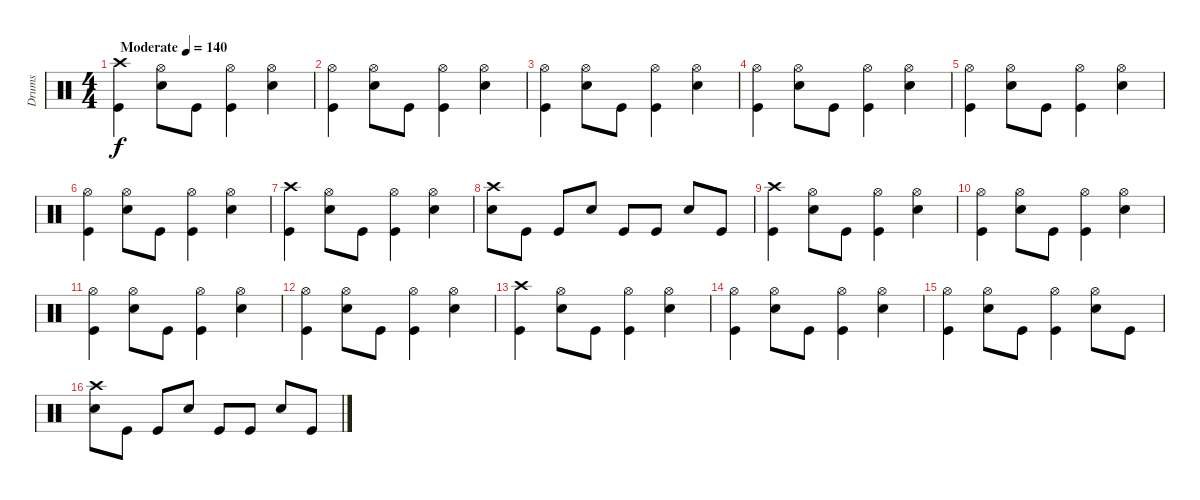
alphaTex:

\track ("Drums" "Drums") {instrument percussion}
\staff {score}
\articulation defaults
\ts (4 4)
\tempo (140 "Moderate")
\clef neutral
\ks c
("Crash high (hit)" "Kick (hit)").4{dy f} ("Hi-Hat (open)" "Snare (hit) 2").8 "Kick (hit)".8 ("Hi-Hat (open)" "Kick (hit)").4 ("Hi-Hat (open)" "Snare (hit) 2").4 |
("Hi-Hat (open)" "Kick (hit)").4 ("Hi-Hat (open)" "Snare (hit) 2").8 "Kick (hit)".8 ("Hi-Hat (open)" "Kick (hit)").4 ("Hi-Hat (open)" "Snare (hit) 2").4 |
("Hi-Hat (open)" "Kick (hit)").4 ("Hi-Hat (open)" "Snare (hit) 2").8 "Kick (hit)".8 ("Hi-Hat (open)" "Kick (hit)").4 ("Hi-Hat (open)" "Snare (hit) 2").4 |
("Hi-Hat (open)" "Kick (hit)").4 ("Hi-Hat (open)" "Snare (hit) 2").8 "Kick (hit)".8 ("Hi-Hat (open)" "Kick (hit)").4 ("Hi-Hat (open)" "Snare (hit) 2").4 |
("Hi-Hat (open)" "Kick (hit)").4 ("Hi-Hat (open)" "Snare (hit) 2").8 "Kick (hit)".8 ("Hi-Hat (open)" "Kick (hit)").4 ("Hi-Hat (open)" "Snare (hit) 2").4 |
("Hi-Hat (open)" "Kick (hit)").4 ("Hi-Hat (open)" "Snare (hit) 2").8 "Kick (hit)".8 ("Hi-Hat (open)" "Kick (hit)").4 ("Hi-Hat (open)" "Snare (hit) 2").4 |
("Crash high (hit)" "Kick (hit)").4 ("Hi-Hat (open)" "Snare (hit) 2").8 "Kick (hit)".8 ("Hi-Hat (open)" "Kick (hit)").4 ("Hi-Hat (open)" "Snare (hit) 2").4 |
("Crash high (hit)" "Snare (hit) 2").8 "Kick (hit)".8 "Kick (hit)".8 "Snare (hit) 2".8 "Kick (hit)".8 "Kick (hit)".8 "Snare (hit) 2".8 "Kick (hit)".8 |
("Crash high (hit)" "Kick (hit)").4 ("Hi-Hat (open)" "Snare (hit) 2").8 "Kick (hit)".8 ("Hi-Hat (open)" "Kick (hit)").4 ("Hi-Hat (open)" "Snare (hit) 2").4 |
("Hi-Hat (open)" "Kick (hit)").4 ("Hi-Hat (open)" "Snare (hit) 2").8 "Kick (hit)".8 ("Hi-Hat (open)" "Kick (hit)").4 ("Hi-Hat (open)" "Snare (hit) 2").4 |
("Hi-Hat (open)" "Kick (hit)").4 ("Hi-Hat (open)" "Snare (hit) 2").8 "Kick (hit)".8 ("Hi-Hat (open)" "Kick (hit)").4 ("Hi-Hat (open)" "Snare (hit) 2").4 |
("Hi-Hat (open)" "Kick (hit)").4 ("Hi-Hat (open)" "Snare (hit) 2").8 "Kick (hit)".8 ("Hi-Hat (open)" "Kick (hit)").4 ("Hi-Hat (open)" "Snare (hit) 2").4 |
("Crash high (hit)" "Kick (hit)").4 ("Hi-Hat (open)" "Snare (hit) 2").8 "Kick (hit)".8 ("Hi-Hat (open)" "Kick (hit)").4 ("Hi-Hat (open)" "Snare (hit) 2").4 |
("Hi-Hat (open)" "Kick (hit)").4 ("Hi-Hat (open)" "Snare (hit) 2").8 "Kick (hit)".8 ("Hi-Hat (open)" "Kick (hit)").4 ("Hi-Hat (open)" "Snare (hit) 2").4 |
("Hi-Hat (open)" "Kick (hit)").4 ("Hi-Hat (open)" "Snare (hit) 2").8 "Kick (hit)".8 ("Hi-Hat (open)" "Kick (hit)").4 ("Hi-Hat (open)" "Snare (hit) 2").8 "Kick (hit)".8 |
("Crash high (hit)" "Snare (hit) 2").8 "Kick (hit)".8 "Kick (hit)".8 "Snare (hit) 2".8 "Kick (hit)".8 "Kick (hit)".8 "Snare (hit) 2".8 "Kick (hit)".8
